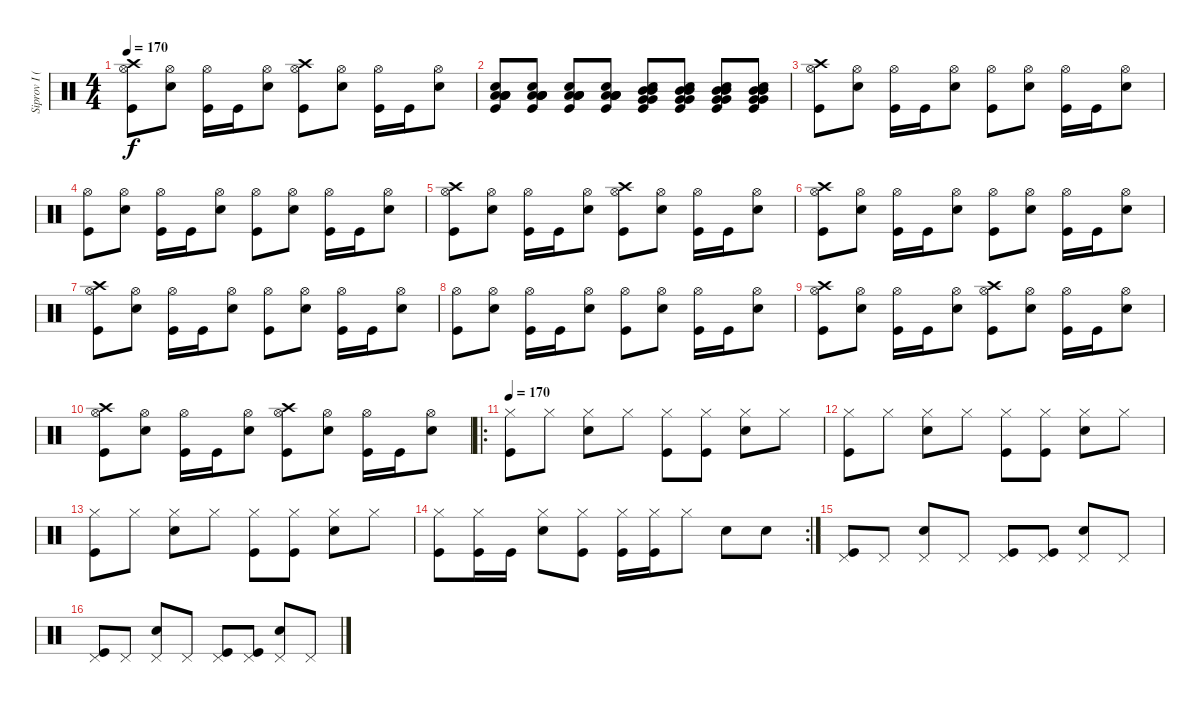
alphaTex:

\track ("Siprov I (DRUMS)" "Siprov I (") {instrument percussion}
\staff {score}
\articulation defaults
\ts (4 4)
\tempo 170
\clef neutral
\ks c
("Hi-Hat (open)" "Crash high (hit)" "Kick (hit)").8{dy f} ("Hi-Hat (open)" "Electric Snare (hit)").8 ("Hi-Hat (open)" "Kick (hit)").16 "Kick (hit)".16 ("Hi-Hat (open)" "Electric Snare (hit)").8 ("Hi-Hat (open)" "Crash high (hit)" "Kick (hit)").8 ("Hi-Hat (open)" "Electric Snare (hit)").8 ("Hi-Hat (open)" "Kick (hit)").16 "Kick (hit)".16 ("Hi-Hat (open)" "Electric Snare (hit)").8 |
("Low Tom (hit)" "Low Tom (hit)" "Low Floor Tom (hit)" "Low Floor Tom (hit)" "Electric Snare (hit)" "Kick (hit)").8 ("Low Tom (hit)" "Low Tom (hit)" "Low Floor Tom (hit)" "Low Floor Tom (hit)" "Electric Snare (hit)" "Kick (hit)").8 ("Low Tom (hit)" "Low Tom (hit)" "Low Floor Tom (hit)" "Low Floor Tom (hit)" "Electric Snare (hit)" "Kick (hit)").8 ("Low Tom (hit)" "Low Tom (hit)" "Low Floor Tom (hit)" "Low Floor Tom (hit)" "Electric Snare (hit)" "Kick (hit)").8 ("Mid Tom (hit)" "Mid Tom (hit)" "Very Low Tom (hit)" "Very Low Tom (hit)" "Electric Snare (hit)" "Kick (hit)").8 ("Mid Tom (hit)" "Mid Tom (hit)" "Very Low Tom (hit)" "Very Low Tom (hit)" "Electric Snare (hit)" "Kick (hit)").8 ("Mid Tom (hit)" "Mid Tom (hit)" "Very Low Tom (hit)" "Very Low Tom (hit)" "Electric Snare (hit)" "Kick (hit)").8 ("Mid Tom (hit)" "Mid Tom (hit)" "Very Low Tom (hit)" "Very Low Tom (hit)" "Electric Snare (hit)" "Kick (hit)").8 |
("Hi-Hat (open)" "Crash high (hit)" "Kick (hit)").8 ("Hi-Hat (open)" "Electric Snare (hit)").8 ("Hi-Hat (open)" "Kick (hit)").16 "Kick (hit)".16 ("Hi-Hat (open)" "Electric Snare (hit)").8 ("Hi-Hat (open)" "Kick (hit)").8 ("Hi-Hat (open)" "Electric Snare (hit)").8 ("Hi-Hat (open)" "Kick (hit)").16 "Kick (hit)".16 ("Hi-Hat (open)" "Electric Snare (hit)").8 |
("Hi-Hat (open)" "Kick (hit)").8 ("Hi-Hat (open)" "Electric Snare (hit)").8 ("Hi-Hat (open)" "Kick (hit)").16 "Kick (hit)".16 ("Hi-Hat (open)" "Electric Snare (hit)").8 ("Hi-Hat (open)" "Kick (hit)").8 ("Hi-Hat (open)" "Electric Snare (hit)").8 ("Hi-Hat (open)" "Kick (hit)").16 "Kick (hit)".16 ("Hi-Hat (open)" "Electric Snare (hit)").8 |
("Hi-Hat (open)" "Crash high (hit)" "Kick (hit)").8 ("Hi-Hat (open)" "Electric Snare (hit)").8 ("Hi-Hat (open)" "Kick (hit)").16 "Kick (hit)".16 ("Hi-Hat (open)" "Electric Snare (hit)").8 ("Hi-Hat (open)" "Crash high (hit)" "Kick (hit)").8 ("Hi-Hat (open)" "Electric Snare (hit)").8 ("Hi-Hat (open)" "Kick (hit)").16 "Kick (hit)".16 ("Hi-Hat (open)" "Electric Snare (hit)").8 |
("Hi-Hat (open)" "Crash high (hit)" "Kick (hit)").8 ("Hi-Hat (open)" "Electric Snare (hit)").8 ("Hi-Hat (open)" "Kick (hit)").16 "Kick (hit)".16 ("Hi-Hat (open)" "Electric Snare (hit)").8 ("Hi-Hat (open)" "Kick (hit)").8 ("Hi-Hat (open)" "Electric Snare (hit)").8 ("Hi-Hat (open)" "Kick (hit)").16 "Kick (hit)".16 ("Hi-Hat (open)" "Electric Snare (hit)").8 |
("Hi-Hat (open)" "Crash high (hit)" "Kick (hit)").8 ("Hi-Hat (open)" "Electric Snare (hit)").8 ("Hi-Hat (open)" "Kick (hit)").16 "Kick (hit)".16 ("Hi-Hat (open)" "Electric Snare (hit)").8 ("Hi-Hat (open)" "Kick (hit)").8 ("Hi-Hat (open)" "Electric Snare (hit)").8 ("Hi-Hat (open)" "Kick (hit)").16 "Kick (hit)".16 ("Hi-Hat (open)" "Electric Snare (hit)").8 |
("Hi-Hat (open)" "Kick (hit)").8 ("Hi-Hat (open)" "Electric Snare (hit)").8 ("Hi-Hat (open)" "Kick (hit)").16 "Kick (hit)".16 ("Hi-Hat (open)" "Electric Snare (hit)").8 ("Hi-Hat (open)" "Kick (hit)").8 ("Hi-Hat (open)" "Electric Snare (hit)").8 ("Hi-Hat (open)" "Kick (hit)").16 "Kick (hit)".16 ("Hi-Hat (open)" "Electric Snare (hit)").8 |
("Hi-Hat (open)" "Crash high (hit)" "Kick (hit)").8 ("Hi-Hat (open)" "Electric Snare (hit)").8 ("Hi-Hat (open)" "Kick (hit)").16 "Kick (hit)".16 ("Hi-Hat (open)" "Electric Snare (hit)").8 ("Hi-Hat (open)" "Crash high (hit)" "Kick (hit)").8 ("Hi-Hat (open)" "Electric Snare (hit)").8 ("Hi-Hat (open)" "Kick (hit)").16 "Kick (hit)".16 ("Hi-Hat (open)" "Electric Snare (hit)").8 |
("Hi-Hat (open)" "Crash high (hit)" "Kick (hit)").8 ("Hi-Hat (open)" "Electric Snare (hit)").8 ("Hi-Hat (open)" "Kick (hit)").16 "Kick (hit)".16 ("Hi-Hat (open)" "Electric Snare (hit)").8 ("Hi-Hat (open)" "Crash high (hit)" "Kick (hit)").8 ("Hi-Hat (open)" "Electric Snare (hit)").8 ("Hi-Hat (open)" "Kick (hit)").16 "Kick (hit)".16 ("Hi-Hat (open)" "Electric Snare (hit)").8 |
\ro
\tempo 170
("Hi-Hat (closed)" "Kick (hit)").8 "Hi-Hat (closed)".8 ("Hi-Hat (closed)" "Electric Snare (hit)").8 "Hi-Hat (closed)".8 ("Hi-Hat (closed)" "Kick (hit)").8 ("Hi-Hat (closed)" "Kick (hit)").8 ("Hi-Hat (closed)" "Electric Snare (hit)").8 "Hi-Hat (closed)".8 |
("Hi-Hat (closed)" "Kick (hit)").8 "Hi-Hat (closed)".8 ("Hi-Hat (closed)" "Electric Snare (hit)").8 "Hi-Hat (closed)".8 ("Hi-Hat (closed)" "Kick (hit)").8 ("Hi-Hat (closed)" "Kick (hit)").8 ("Hi-Hat (closed)" "Electric Snare (hit)").8 "Hi-Hat (closed)".8 |
("Hi-Hat (closed)" "Kick (hit)").8 "Hi-Hat (closed)".8 ("Hi-Hat (closed)" "Electric Snare (hit)").8 "Hi-Hat (closed)".8 ("Hi-Hat (closed)" "Kick (hit)").8 ("Hi-Hat (closed)" "Kick (hit)").8 ("Hi-Hat (closed)" "Electric Snare (hit)").8 "Hi-Hat (closed)".8 |
\rc 2
("Hi-Hat (closed)" "Kick (hit)").8 ("Hi-Hat (closed)" "Kick (hit)").16 "Kick (hit)".16 ("Hi-Hat (closed)" "Electric Snare (hit)").8 ("Hi-Hat (closed)" "Kick (hit)").8 ("Hi-Hat (closed)" "Kick (hit)").16 ("Hi-Hat (closed)" "Kick (hit)").16 "Hi-Hat (closed)".8 "Electric Snare (hit)".8 "Electric Snare (hit)".8 |
("Pedal Hi-Hat (hit)" "Kick (hit)").8 "Pedal Hi-Hat (hit)".8 ("Pedal Hi-Hat (hit)" "Electric Snare (hit)").8 "Pedal Hi-Hat (hit)".8 ("Pedal Hi-Hat (hit)" "Kick (hit)").8 ("Pedal Hi-Hat (hit)" "Kick (hit)").8 ("Pedal Hi-Hat (hit)" "Electric Snare (hit)").8 "Pedal Hi-Hat (hit)".8 |
("Pedal Hi-Hat (hit)" "Kick (hit)").8 "Pedal Hi-Hat (hit)".8 ("Pedal Hi-Hat (hit)" "Electric Snare (hit)").8 "Pedal Hi-Hat (hit)".8 ("Pedal Hi-Hat (hit)" "Kick (hit)").8 ("Pedal Hi-Hat (hit)" "Kick (hit)").8 ("Pedal Hi-Hat (hit)" "Electric Snare (hit)").8 "Pedal Hi-Hat (hit)".8
